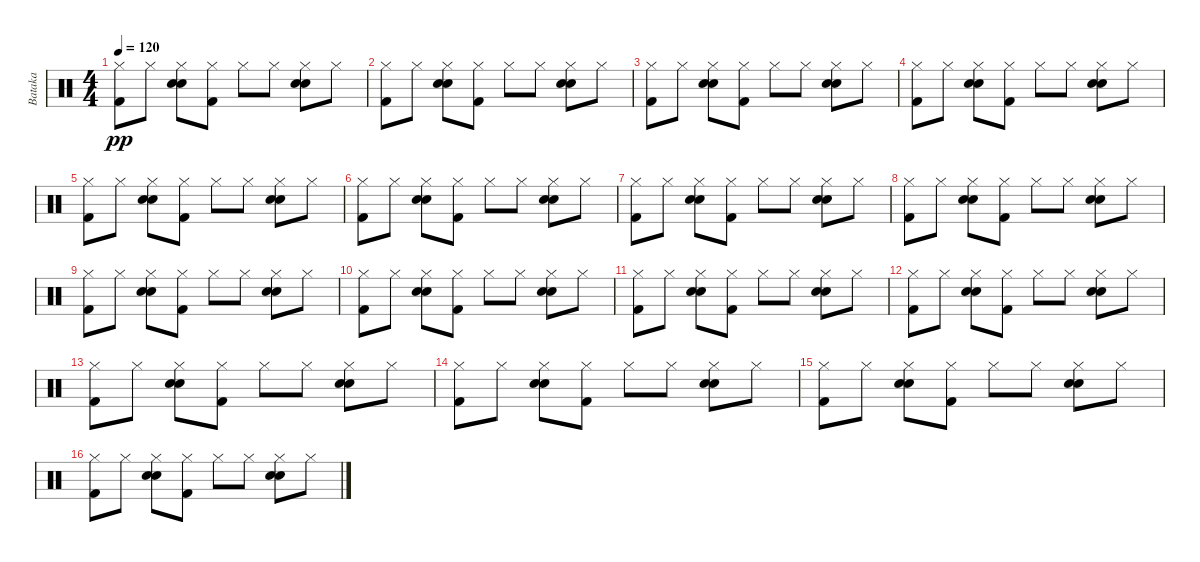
\track ("Bataka" "Bataka") {instrument percussion}
\staff {score}
\articulation defaults
\ts (4 4)
\tempo 120
\clef neutral
\ks c
("Hi-Hat (closed)" "Kick (hit) 2").8{dy pp} "Hi-Hat (closed)".8 ("Hi-Hat (closed)" "Electric Snare (hit)" "Snare (hit) 2").8 ("Hi-Hat (closed)" "Kick (hit) 2").8 "Hi-Hat (closed)".8 "Hi-Hat (closed)".8 ("Hi-Hat (closed)" "Snare (hit) 2" "Electric Snare (hit)").8 "Hi-Hat (closed)".8 |
("Hi-Hat (closed)" "Kick (hit) 2").8 "Hi-Hat (closed)".8 ("Hi-Hat (closed)" "Electric Snare (hit)" "Snare (hit) 2").8 ("Hi-Hat (closed)" "Kick (hit) 2").8 "Hi-Hat (closed)".8 "Hi-Hat (closed)".8 ("Hi-Hat (closed)" "Snare (hit) 2" "Electric Snare (hit)").8 "Hi-Hat (closed)".8 |
("Hi-Hat (closed)" "Kick (hit) 2").8 "Hi-Hat (closed)".8 ("Hi-Hat (closed)" "Electric Snare (hit)" "Snare (hit) 2").8 ("Hi-Hat (closed)" "Kick (hit) 2").8 "Hi-Hat (closed)".8 "Hi-Hat (closed)".8 ("Hi-Hat (closed)" "Snare (hit) 2" "Electric Snare (hit)").8 "Hi-Hat (closed)".8 |
("Hi-Hat (closed)" "Kick (hit) 2").8 "Hi-Hat (closed)".8 ("Hi-Hat (closed)" "Electric Snare (hit)" "Snare (hit) 2").8 ("Hi-Hat (closed)" "Kick (hit) 2").8 "Hi-Hat (closed)".8 "Hi-Hat (closed)".8 ("Hi-Hat (closed)" "Snare (hit) 2" "Electric Snare (hit)").8 "Hi-Hat (closed)".8 |
("Hi-Hat (closed)" "Kick (hit) 2").8 "Hi-Hat (closed)".8 ("Hi-Hat (closed)" "Electric Snare (hit)" "Snare (hit) 2").8 ("Hi-Hat (closed)" "Kick (hit) 2").8 "Hi-Hat (closed)".8 "Hi-Hat (closed)".8 ("Hi-Hat (closed)" "Snare (hit) 2" "Electric Snare (hit)").8 "Hi-Hat (closed)".8 |
("Hi-Hat (closed)" "Kick (hit) 2").8 "Hi-Hat (closed)".8 ("Hi-Hat (closed)" "Electric Snare (hit)" "Snare (hit) 2").8 ("Hi-Hat (closed)" "Kick (hit) 2").8 "Hi-Hat (closed)".8 "Hi-Hat (closed)".8 ("Hi-Hat (closed)" "Snare (hit) 2" "Electric Snare (hit)").8 "Hi-Hat (closed)".8 |
("Hi-Hat (closed)" "Kick (hit) 2").8 "Hi-Hat (closed)".8 ("Hi-Hat (closed)" "Electric Snare (hit)" "Snare (hit) 2").8 ("Hi-Hat (closed)" "Kick (hit) 2").8 "Hi-Hat (closed)".8 "Hi-Hat (closed)".8 ("Hi-Hat (closed)" "Snare (hit) 2" "Electric Snare (hit)").8 "Hi-Hat (closed)".8 |
("Hi-Hat (closed)" "Kick (hit) 2").8 "Hi-Hat (closed)".8 ("Hi-Hat (closed)" "Electric Snare (hit)" "Snare (hit) 2").8 ("Hi-Hat (closed)" "Kick (hit) 2").8 "Hi-Hat (closed)".8 "Hi-Hat (closed)".8 ("Hi-Hat (closed)" "Snare (hit) 2" "Electric Snare (hit)").8 "Hi-Hat (closed)".8 |
("Hi-Hat (closed)" "Kick (hit) 2").8 "Hi-Hat (closed)".8 ("Hi-Hat (closed)" "Electric Snare (hit)" "Snare (hit) 2").8 ("Hi-Hat (closed)" "Kick (hit) 2").8 "Hi-Hat (closed)".8 "Hi-Hat (closed)".8 ("Hi-Hat (closed)" "Snare (hit) 2" "Electric Snare (hit)").8 "Hi-Hat (closed)".8 |
("Hi-Hat (closed)" "Kick (hit) 2").8 "Hi-Hat (closed)".8 ("Hi-Hat (closed)" "Electric Snare (hit)" "Snare (hit) 2").8 ("Hi-Hat (closed)" "Kick (hit) 2").8 "Hi-Hat (closed)".8 "Hi-Hat (closed)".8 ("Hi-Hat (closed)" "Snare (hit) 2" "Electric Snare (hit)").8 "Hi-Hat (closed)".8 |
("Hi-Hat (closed)" "Kick (hit) 2").8 "Hi-Hat (closed)".8 ("Hi-Hat (closed)" "Electric Snare (hit)" "Snare (hit) 2").8 ("Hi-Hat (closed)" "Kick (hit) 2").8 "Hi-Hat (closed)".8 "Hi-Hat (closed)".8 ("Hi-Hat (closed)" "Snare (hit) 2" "Electric Snare (hit)").8 "Hi-Hat (closed)".8 |
("Hi-Hat (closed)" "Kick (hit) 2").8 "Hi-Hat (closed)".8 ("Hi-Hat (closed)" "Electric Snare (hit)" "Snare (hit) 2").8 ("Hi-Hat (closed)" "Kick (hit) 2").8 "Hi-Hat (closed)".8 "Hi-Hat (closed)".8 ("Hi-Hat (closed)" "Snare (hit) 2" "Electric Snare (hit)").8 "Hi-Hat (closed)".8 |
("Hi-Hat (closed)" "Kick (hit) 2").8 "Hi-Hat (closed)".8 ("Hi-Hat (closed)" "Electric Snare (hit)" "Snare (hit) 2").8 ("Hi-Hat (closed)" "Kick (hit) 2").8 "Hi-Hat (closed)".8 "Hi-Hat (closed)".8 ("Hi-Hat (closed)" "Snare (hit) 2" "Electric Snare (hit)").8 "Hi-Hat (closed)".8 |
("Hi-Hat (closed)" "Kick (hit) 2").8 "Hi-Hat (closed)".8 ("Hi-Hat (closed)" "Electric Snare (hit)" "Snare (hit) 2").8 ("Hi-Hat (closed)" "Kick (hit) 2").8 "Hi-Hat (closed)".8 "Hi-Hat (closed)".8 ("Hi-Hat (closed)" "Snare (hit) 2" "Electric Snare (hit)").8 "Hi-Hat (closed)".8 |
("Hi-Hat (closed)" "Kick (hit) 2").8 "Hi-Hat (closed)".8 ("Hi-Hat (closed)" "Electric Snare (hit)" "Snare (hit) 2").8 ("Hi-Hat (closed)" "Kick (hit) 2").8 "Hi-Hat (closed)".8 "Hi-Hat (closed)".8 ("Hi-Hat (closed)" "Snare (hit) 2" "Electric Snare (hit)").8 "Hi-Hat (closed)".8 |
("Hi-Hat (closed)" "Kick (hit) 2").8 "Hi-Hat (closed)".8 ("Hi-Hat (closed)" "Electric Snare (hit)" "Snare (hit) 2").8 ("Hi-Hat (closed)" "Kick (hit) 2").8 "Hi-Hat (closed)".8 "Hi-Hat (closed)".8 ("Hi-Hat (closed)" "Snare (hit) 2" "Electric Snare (hit)").8 "Hi-Hat (closed)".8
